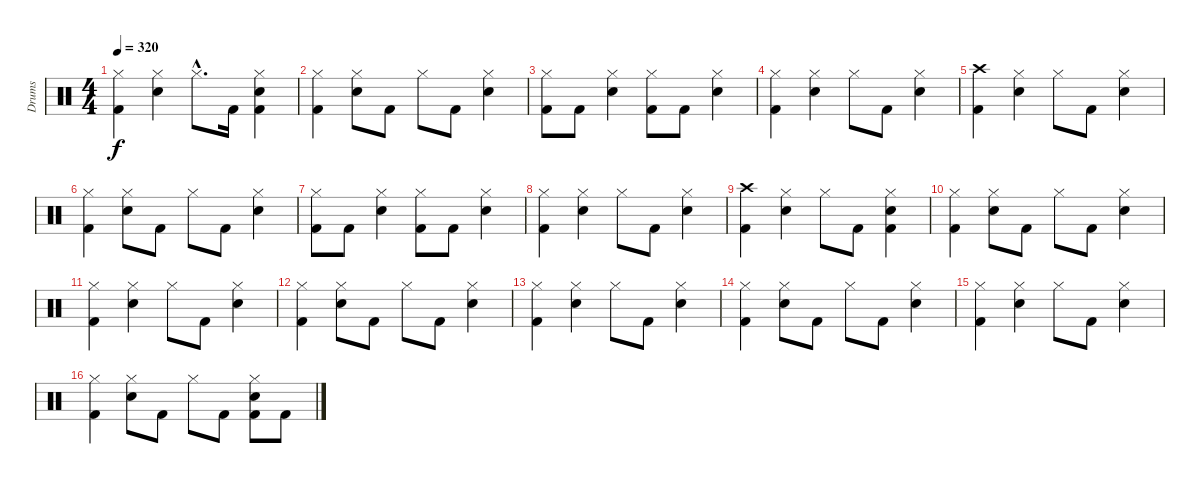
\track ("Drums" "Drums") {instrument percussion}
\staff {score}
\articulation defaults
\ts (4 4)
\tempo 320
\clef neutral
\ks c
("Hi-Hat (closed)" "Kick (hit) 2").4{dy f} ("Snare (hit) 2" "Hi-Hat (closed)").4 "Hi-Hat (closed)"{hac}.8{d} "Kick (hit) 2".16 ("Kick (hit) 2" "Hi-Hat (closed)" "Snare (hit) 2").4 |
("Kick (hit) 2" "Hi-Hat (closed)").4 ("Snare (hit) 2" "Hi-Hat (closed)").8 "Kick (hit) 2".8 "Hi-Hat (closed)".8 "Kick (hit) 2".8 ("Hi-Hat (closed)" "Snare (hit) 2").4 |
("Hi-Hat (closed)" "Kick (hit) 2").8 "Kick (hit) 2".8 ("Hi-Hat (closed)" "Snare (hit) 2").4 ("Hi-Hat (closed)" "Kick (hit) 2").8 "Kick (hit) 2".8 ("Hi-Hat (closed)" "Snare (hit) 2").4 |
("Hi-Hat (closed)" "Kick (hit) 2").4 ("Snare (hit) 2" "Hi-Hat (closed)").4 "Hi-Hat (closed)".8 "Kick (hit) 2".8 ("Hi-Hat (closed)" "Snare (hit) 2").4 |
("Crash high (hit)" "Kick (hit) 2").4 ("Hi-Hat (closed)" "Snare (hit) 2").4 "Hi-Hat (closed)".8 "Kick (hit) 2".8 ("Hi-Hat (closed)" "Snare (hit) 2").4 |
("Hi-Hat (closed)" "Kick (hit) 2").4 ("Hi-Hat (closed)" "Snare (hit) 2").8 "Kick (hit) 2".8 "Hi-Hat (closed)".8 "Kick (hit) 2".8 ("Hi-Hat (closed)" "Snare (hit) 2").4 |
("Hi-Hat (closed)" "Kick (hit) 2").8 "Kick (hit) 2".8 ("Hi-Hat (closed)" "Snare (hit) 2").4 ("Hi-Hat (closed)" "Kick (hit) 2").8 "Kick (hit) 2".8 ("Hi-Hat (closed)" "Snare (hit) 2").4 |
("Hi-Hat (closed)" "Kick (hit) 2").4 ("Hi-Hat (closed)" "Snare (hit) 2").4 "Hi-Hat (closed)".8 "Kick (hit) 2".8 ("Snare (hit) 2" "Hi-Hat (closed)").4 |
("Kick (hit) 2" "Crash high (hit)").4 ("Snare (hit) 2" "Hi-Hat (closed)").4 "Hi-Hat (closed)".8 "Kick (hit) 2".8 ("Hi-Hat (closed)" "Kick (hit) 2" "Snare (hit) 2").4 |
("Kick (hit) 2" "Hi-Hat (closed)").4 ("Snare (hit) 2" "Hi-Hat (closed)").8 "Kick (hit) 2".8 "Hi-Hat (closed)".8 "Kick (hit) 2".8 ("Hi-Hat (closed)" "Snare (hit) 2").4 |
("Kick (hit) 2" "Hi-Hat (closed)").4 ("Snare (hit) 2" "Hi-Hat (closed)").4 "Hi-Hat (closed)".8 "Kick (hit) 2".8 ("Hi-Hat (closed)" "Snare (hit) 2").4 |
("Kick (hit) 2" "Hi-Hat (closed)").4 ("Hi-Hat (closed)" "Snare (hit) 2").8 "Kick (hit) 2".8 "Hi-Hat (closed)".8 "Kick (hit) 2".8 ("Snare (hit) 2" "Hi-Hat (closed)").4 |
("Kick (hit) 2" "Hi-Hat (closed)").4 ("Snare (hit) 2" "Hi-Hat (closed)").4 "Hi-Hat (closed)".8 "Kick (hit) 2".8 ("Snare (hit) 2" "Hi-Hat (closed)").4 |
("Kick (hit) 2" "Hi-Hat (closed)").4 ("Hi-Hat (closed)" "Snare (hit) 2").8 "Kick (hit) 2".8 "Hi-Hat (closed)".8 "Kick (hit) 2".8 ("Snare (hit) 2" "Hi-Hat (closed)").4 |
("Kick (hit) 2" "Hi-Hat (closed)").4 ("Snare (hit) 2" "Hi-Hat (closed)").4 "Hi-Hat (closed)".8 "Kick (hit) 2".8 ("Snare (hit) 2" "Hi-Hat (closed)").4 |
("Kick (hit) 2" "Hi-Hat (closed)").4 ("Snare (hit) 2" "Hi-Hat (closed)").8 "Kick (hit) 2".8 "Hi-Hat (closed)".8 "Kick (hit) 2".8 ("Hi-Hat (closed)" "Snare (hit) 2" "Kick (hit) 2").8 "Kick (hit) 2".8
